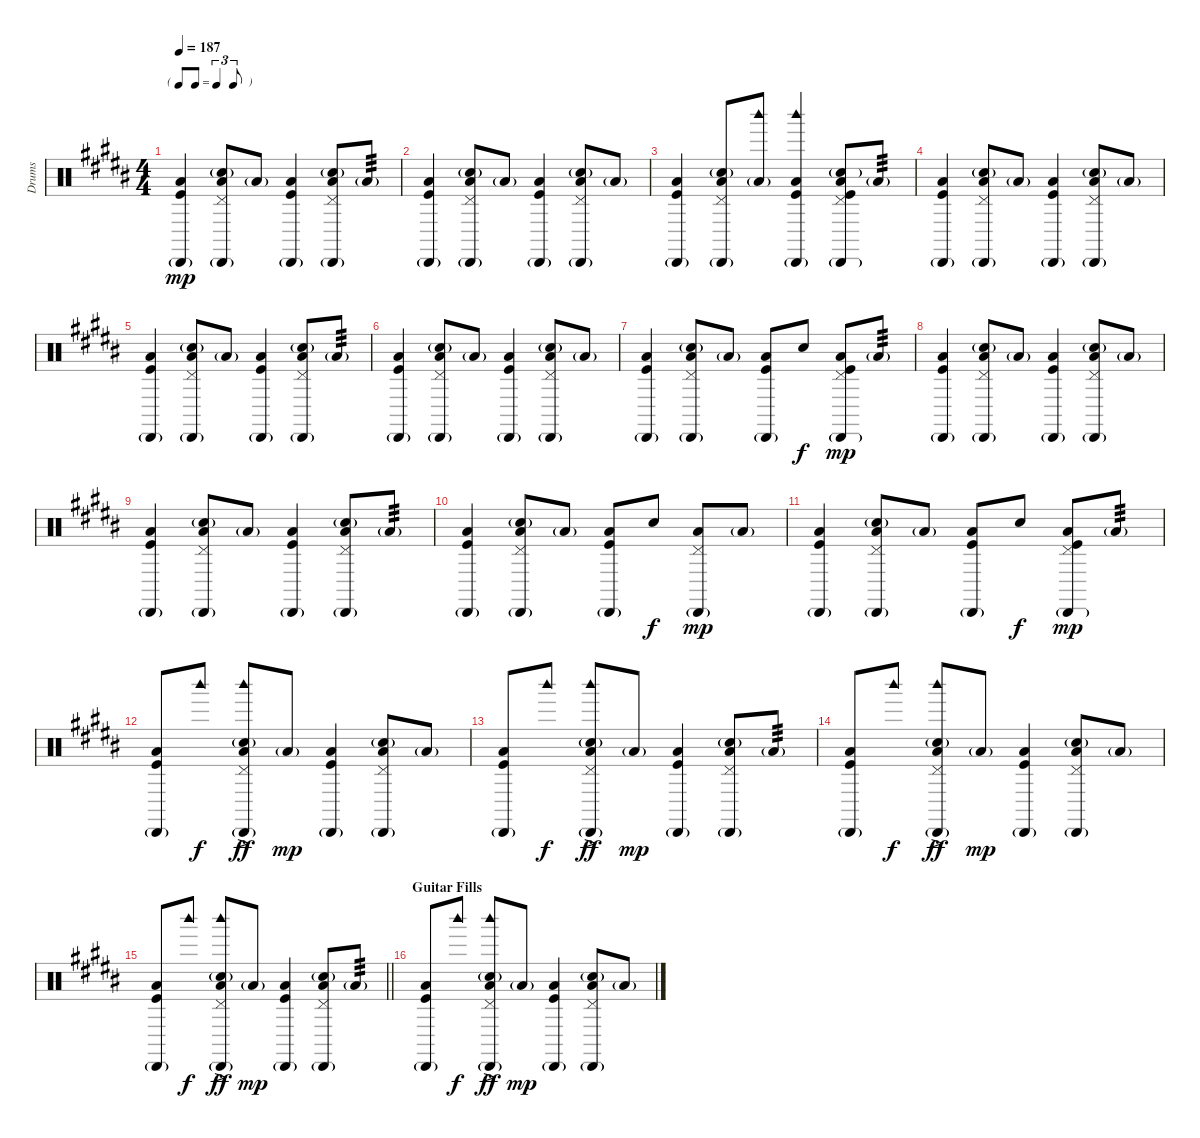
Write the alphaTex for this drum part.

\track ("Drums" "Drums") {instrument percussion}
\staff {score}
\articulation defaults
\ts (4 4)
\tf triplet8th
\tempo 187
\clef neutral
\ks b
("Cabasa (hit)"{g} "Low Floor Tom (hit)" "Kick (hit)").4{dy mp} ("Pedal Hi-Hat (hit)" "Cabasa (hit)"{g} "Snare (hit) 2"{g} "Low Floor Tom (hit)").8 "Low Floor Tom (hit)"{g}.8 ("Cabasa (hit)"{g} "Low Floor Tom (hit)" "Kick (hit)").4 ("Pedal Hi-Hat (hit)" "Cabasa (hit)"{g} "Snare (hit) 2"{g} "Low Floor Tom (hit)").8 "Low Floor Tom (hit)"{g}.8{tp 3} |
("Cabasa (hit)"{g} "Low Floor Tom (hit)" "Kick (hit)").4 ("Pedal Hi-Hat (hit)" "Cabasa (hit)"{g} "Snare (hit) 2"{g} "Low Floor Tom (hit)").8 "Low Floor Tom (hit)"{g}.8 ("Cabasa (hit)"{g} "Low Floor Tom (hit)" "Kick (hit)").4 ("Pedal Hi-Hat (hit)" "Cabasa (hit)"{g} "Snare (hit) 2"{g} "Low Floor Tom (hit)").8 "Low Floor Tom (hit)"{g}.8 |
("Cabasa (hit)"{g} "Low Floor Tom (hit)" "Kick (hit)").4 ("Pedal Hi-Hat (hit)" "Cabasa (hit)"{g} "Snare (hit) 2"{g} "Low Floor Tom (hit)").8 ("Woodblock high (hit)" "Low Floor Tom (hit)"{g}).8 ("Cabasa (hit)"{g} "Woodblock high (hit)" "Low Floor Tom (hit)" "Kick (hit)").4 ("Pedal Hi-Hat (hit)" "Cabasa (hit)"{g} "Snare (hit) 2"{g} "Low Floor Tom (hit)" "Kick (hit)").8 "Low Floor Tom (hit)"{g}.8{tp 3} |
("Cabasa (hit)"{g} "Low Floor Tom (hit)" "Kick (hit)").4 ("Pedal Hi-Hat (hit)" "Cabasa (hit)"{g} "Snare (hit) 2"{g} "Low Floor Tom (hit)").8 "Low Floor Tom (hit)"{g}.8 ("Cabasa (hit)"{g} "Low Floor Tom (hit)" "Kick (hit)").4 ("Pedal Hi-Hat (hit)" "Cabasa (hit)"{g} "Snare (hit) 2"{g} "Low Floor Tom (hit)").8 "Low Floor Tom (hit)"{g}.8 |
("Cabasa (hit)"{g} "Low Floor Tom (hit)" "Kick (hit)").4 ("Pedal Hi-Hat (hit)" "Cabasa (hit)"{g} "Snare (hit) 2"{g} "Low Floor Tom (hit)").8 "Low Floor Tom (hit)"{g}.8 ("Cabasa (hit)"{g} "Low Floor Tom (hit)" "Kick (hit)").4 ("Pedal Hi-Hat (hit)" "Cabasa (hit)"{g} "Snare (hit) 2"{g} "Low Floor Tom (hit)").8 "Low Floor Tom (hit)"{g}.8{tp 3} |
("Cabasa (hit)"{g} "Low Floor Tom (hit)" "Kick (hit)").4 ("Pedal Hi-Hat (hit)" "Cabasa (hit)"{g} "Snare (hit) 2"{g} "Low Floor Tom (hit)").8 "Low Floor Tom (hit)"{g}.8 ("Cabasa (hit)"{g} "Low Floor Tom (hit)" "Kick (hit)").4 ("Pedal Hi-Hat (hit)" "Cabasa (hit)"{g} "Snare (hit) 2"{g} "Low Floor Tom (hit)").8 "Low Floor Tom (hit)"{g}.8 |
("Cabasa (hit)"{g} "Low Floor Tom (hit)" "Kick (hit)").4 ("Pedal Hi-Hat (hit)" "Cabasa (hit)"{g} "Snare (hit) 2"{g} "Low Floor Tom (hit)").8 "Low Floor Tom (hit)"{g}.8 ("Cabasa (hit)"{g} "Low Floor Tom (hit)" "Kick (hit)").8 "Snare (hit) 2".8{dy f} ("Pedal Hi-Hat (hit)" "Cabasa (hit)"{g} "Low Floor Tom (hit)" "Kick (hit)").8{dy mp} "Low Floor Tom (hit)"{g}.8{tp 3} |
("Cabasa (hit)"{g} "Low Floor Tom (hit)" "Kick (hit)").4 ("Pedal Hi-Hat (hit)" "Cabasa (hit)"{g} "Snare (hit) 2"{g} "Low Floor Tom (hit)").8 "Low Floor Tom (hit)"{g}.8 ("Cabasa (hit)"{g} "Low Floor Tom (hit)" "Kick (hit)").4 ("Pedal Hi-Hat (hit)" "Cabasa (hit)"{g} "Snare (hit) 2"{g} "Low Floor Tom (hit)").8 "Low Floor Tom (hit)"{g}.8 |
("Cabasa (hit)"{g} "Low Floor Tom (hit)" "Kick (hit)").4 ("Pedal Hi-Hat (hit)" "Cabasa (hit)"{g} "Snare (hit) 2"{g} "Low Floor Tom (hit)").8 "Low Floor Tom (hit)"{g}.8 ("Cabasa (hit)"{g} "Low Floor Tom (hit)" "Kick (hit)").4 ("Pedal Hi-Hat (hit)" "Cabasa (hit)"{g} "Snare (hit) 2"{g} "Low Floor Tom (hit)").8 "Low Floor Tom (hit)"{g}.8{tp 3} |
("Cabasa (hit)"{g} "Low Floor Tom (hit)" "Kick (hit)").4 ("Pedal Hi-Hat (hit)" "Cabasa (hit)"{g} "Snare (hit) 2"{g} "Low Floor Tom (hit)").8 "Low Floor Tom (hit)"{g}.8 ("Cabasa (hit)"{g} "Low Floor Tom (hit)" "Kick (hit)").8 "Snare (hit) 2".8{dy f} ("Pedal Hi-Hat (hit)" "Cabasa (hit)"{g} "Low Floor Tom (hit)").8{dy mp} "Low Floor Tom (hit)"{g}.8 |
("Cabasa (hit)"{g} "Low Floor Tom (hit)" "Kick (hit)").4 ("Pedal Hi-Hat (hit)" "Cabasa (hit)"{g} "Snare (hit) 2"{g} "Low Floor Tom (hit)").8 "Low Floor Tom (hit)"{g}.8 ("Cabasa (hit)"{g} "Low Floor Tom (hit)" "Kick (hit)").8 "Snare (hit) 2".8{dy f} ("Pedal Hi-Hat (hit)" "Cabasa (hit)"{g} "Low Floor Tom (hit)" "Kick (hit)").8{dy mp} "Low Floor Tom (hit)"{g}.8{tp 3} |
("Cabasa (hit)"{g} "Low Floor Tom (hit)" "Kick (hit)").8 "Woodblock high (hit)".8{dy f} ("Pedal Hi-Hat (hit)" "Cabasa (hit)"{g} "Snare (hit) 2"{g} "Woodblock high (hit)"{ac} "Low Floor Tom (hit)").8{dy ff} "Low Floor Tom (hit)"{g}.8{dy mp} ("Cabasa (hit)"{g} "Low Floor Tom (hit)" "Kick (hit)").4 ("Pedal Hi-Hat (hit)" "Cabasa (hit)"{g} "Snare (hit) 2"{g} "Low Floor Tom (hit)").8 "Low Floor Tom (hit)"{g}.8 |
("Cabasa (hit)"{g} "Low Floor Tom (hit)" "Kick (hit)").8 "Woodblock high (hit)".8{dy f} ("Pedal Hi-Hat (hit)" "Cabasa (hit)"{g} "Snare (hit) 2"{g} "Woodblock high (hit)"{ac} "Low Floor Tom (hit)").8{dy ff} "Low Floor Tom (hit)"{g}.8{dy mp} ("Cabasa (hit)"{g} "Low Floor Tom (hit)" "Kick (hit)").4 ("Pedal Hi-Hat (hit)" "Cabasa (hit)"{g} "Snare (hit) 2"{g} "Low Floor Tom (hit)").8 "Low Floor Tom (hit)"{g}.8{tp 3} |
("Cabasa (hit)"{g} "Low Floor Tom (hit)" "Kick (hit)").8 "Woodblock high (hit)".8{dy f} ("Pedal Hi-Hat (hit)" "Cabasa (hit)"{g} "Snare (hit) 2"{g} "Woodblock high (hit)"{ac} "Low Floor Tom (hit)").8{dy ff} "Low Floor Tom (hit)"{g}.8{dy mp} ("Cabasa (hit)"{g} "Low Floor Tom (hit)" "Kick (hit)").4 ("Pedal Hi-Hat (hit)" "Cabasa (hit)"{g} "Snare (hit) 2"{g} "Low Floor Tom (hit)").8 "Low Floor Tom (hit)"{g}.8 |
\barLineRight lightlight
("Cabasa (hit)"{g} "Low Floor Tom (hit)" "Kick (hit)").8 "Woodblock high (hit)".8{dy f} ("Pedal Hi-Hat (hit)" "Cabasa (hit)"{g} "Snare (hit) 2"{g} "Woodblock high (hit)"{ac} "Low Floor Tom (hit)").8{dy ff} "Low Floor Tom (hit)"{g}.8{dy mp} ("Cabasa (hit)"{g} "Low Floor Tom (hit)" "Kick (hit)").4 ("Pedal Hi-Hat (hit)" "Cabasa (hit)"{g} "Snare (hit) 2"{g} "Low Floor Tom (hit)").8 "Low Floor Tom (hit)"{g}.8{tp 3} |
\section ("" "Guitar Fills")
("Cabasa (hit)"{g} "Low Floor Tom (hit)" "Kick (hit)").8 "Woodblock high (hit)".8{dy f} ("Pedal Hi-Hat (hit)" "Cabasa (hit)"{g} "Snare (hit) 2"{g} "Woodblock high (hit)"{ac} "Low Floor Tom (hit)").8{dy ff} "Low Floor Tom (hit)"{g}.8{dy mp} ("Cabasa (hit)"{g} "Low Floor Tom (hit)" "Kick (hit)").4 ("Pedal Hi-Hat (hit)" "Cabasa (hit)"{g} "Snare (hit) 2"{g} "Low Floor Tom (hit)").8 "Low Floor Tom (hit)"{g}.8
